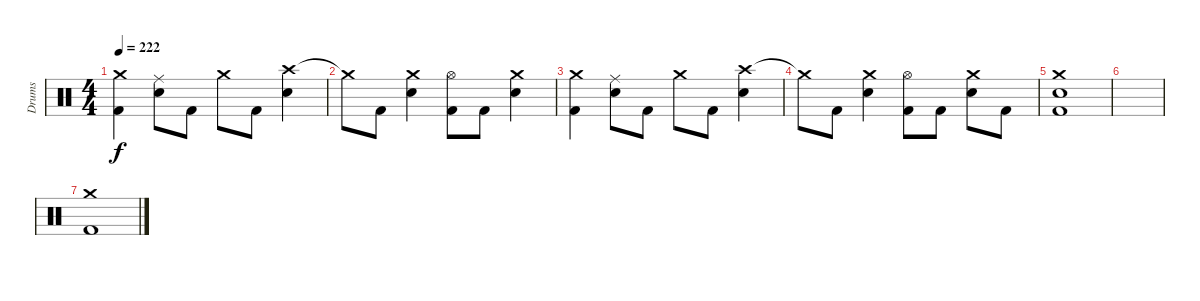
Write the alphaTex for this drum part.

\track ("Drums" "Drums") {instrument percussion}
\staff {score}
\articulation defaults
\ts (4 4)
\tempo 222
\clef neutral
\ks c
("Crash medium (hit)" "Kick (hit) 2").4{dy f} ("Ride (middle)" "Electric Snare (hit)").8 "Kick (hit) 2".8 "Crash medium (hit)".8 "Kick (hit) 2".8 ("Crash high (hit)" "Electric Snare (hit)").4 |
"Crash medium (hit)"{t}.8 "Kick (hit) 2".8 ("Crash medium (hit)" "Electric Snare (hit)").4 ("Hi-Hat (open)" "Kick (hit) 2").8 "Kick (hit) 2".8 ("Crash medium (hit)" "Electric Snare (hit)").4 |
("Crash medium (hit)" "Kick (hit) 2").4 ("Ride (middle)" "Electric Snare (hit)").8 "Kick (hit) 2".8 "Crash medium (hit)".8 "Kick (hit) 2".8 ("Crash high (hit)" "Electric Snare (hit)").4 |
"Crash medium (hit)"{t}.8 "Kick (hit) 2".8 ("Crash medium (hit)" "Electric Snare (hit)").4 ("Hi-Hat (open)" "Kick (hit) 2").8 "Kick (hit) 2".8 ("Crash medium (hit)" "Electric Snare (hit)").8 "Kick (hit) 2".8 |
("Crash medium (hit)" "Electric Snare (hit)" "Kick (hit) 2").1 |
|
("Crash medium (hit)" "Kick (hit) 2").1
